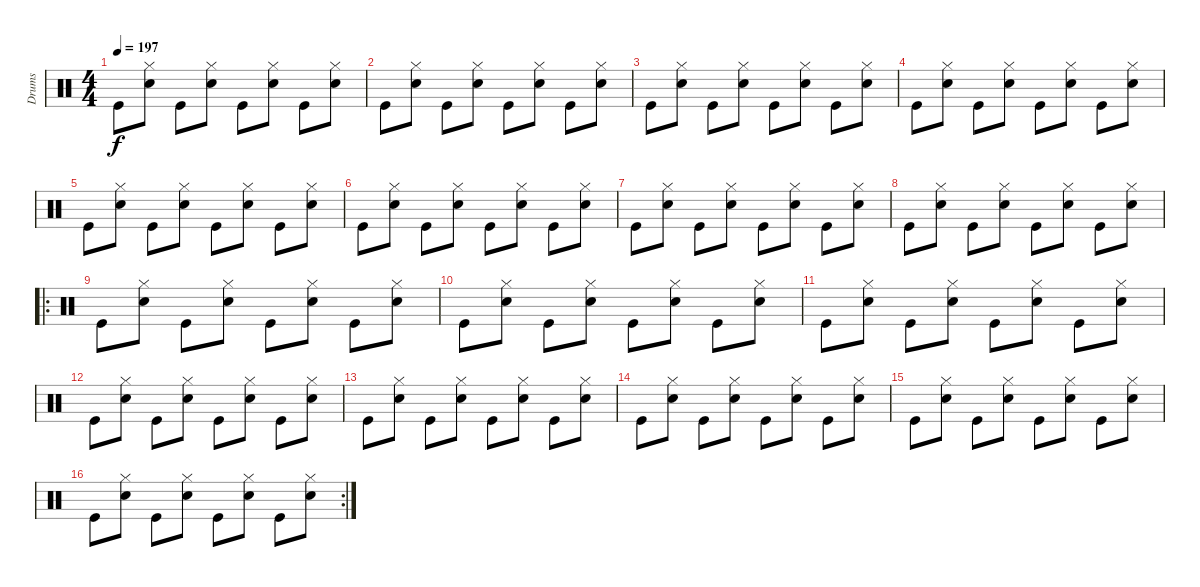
\track ("Drums" "Drums") {instrument percussion}
\staff {score}
\articulation defaults
\ts (4 4)
\tempo 197
\clef neutral
\ks c "Kick (hit)".8{dy f}
("Hi-Hat (closed)" "Snare (hit) 2").8 "Kick (hit)".8 ("Hi-Hat (closed)" "Snare (hit) 2").8 "Kick (hit)".8 ("Hi-Hat (closed)" "Snare (hit) 2").8 "Kick (hit)".8 ("Hi-Hat (closed)" "Snare (hit) 2").8 |
"Kick (hit)".8 ("Hi-Hat (closed)" "Snare (hit) 2").8 "Kick (hit)".8 ("Hi-Hat (closed)" "Snare (hit) 2").8 "Kick (hit)".8 ("Hi-Hat (closed)" "Snare (hit) 2").8 "Kick (hit)".8 ("Hi-Hat (closed)" "Snare (hit) 2").8 |
"Kick (hit)".8 ("Hi-Hat (closed)" "Snare (hit) 2").8 "Kick (hit)".8 ("Hi-Hat (closed)" "Snare (hit) 2").8 "Kick (hit)".8 ("Hi-Hat (closed)" "Snare (hit) 2").8 "Kick (hit)".8 ("Hi-Hat (closed)" "Snare (hit) 2").8 |
"Kick (hit)".8 ("Hi-Hat (closed)" "Snare (hit) 2").8 "Kick (hit)".8 ("Hi-Hat (closed)" "Snare (hit) 2").8 "Kick (hit)".8 ("Hi-Hat (closed)" "Snare (hit) 2").8 "Kick (hit)".8 ("Hi-Hat (closed)" "Snare (hit) 2").8 |
"Kick (hit)".8 ("Hi-Hat (closed)" "Snare (hit) 2").8 "Kick (hit)".8 ("Hi-Hat (closed)" "Snare (hit) 2").8 "Kick (hit)".8 ("Hi-Hat (closed)" "Snare (hit) 2").8 "Kick (hit)".8 ("Hi-Hat (closed)" "Snare (hit) 2").8 |
"Kick (hit)".8 ("Hi-Hat (closed)" "Snare (hit) 2").8 "Kick (hit)".8 ("Hi-Hat (closed)" "Snare (hit) 2").8 "Kick (hit)".8 ("Hi-Hat (closed)" "Snare (hit) 2").8 "Kick (hit)".8 ("Hi-Hat (closed)" "Snare (hit) 2").8 |
"Kick (hit)".8 ("Hi-Hat (closed)" "Snare (hit) 2").8 "Kick (hit)".8 ("Hi-Hat (closed)" "Snare (hit) 2").8 "Kick (hit)".8 ("Hi-Hat (closed)" "Snare (hit) 2").8 "Kick (hit)".8 ("Hi-Hat (closed)" "Snare (hit) 2").8 |
"Kick (hit)".8 ("Hi-Hat (closed)" "Snare (hit) 2").8 "Kick (hit)".8 ("Hi-Hat (closed)" "Snare (hit) 2").8 "Kick (hit)".8 ("Hi-Hat (closed)" "Snare (hit) 2").8 "Kick (hit)".8 ("Hi-Hat (closed)" "Snare (hit) 2").8 |
\ro "Kick (hit)".8
("Hi-Hat (closed)" "Snare (hit) 2").8 "Kick (hit)".8 ("Hi-Hat (closed)" "Snare (hit) 2").8 "Kick (hit)".8 ("Hi-Hat (closed)" "Snare (hit) 2").8 "Kick (hit)".8 ("Hi-Hat (closed)" "Snare (hit) 2").8 |
"Kick (hit)".8 ("Hi-Hat (closed)" "Snare (hit) 2").8 "Kick (hit)".8 ("Hi-Hat (closed)" "Snare (hit) 2").8 "Kick (hit)".8 ("Hi-Hat (closed)" "Snare (hit) 2").8 "Kick (hit)".8 ("Hi-Hat (closed)" "Snare (hit) 2").8 |
"Kick (hit)".8 ("Hi-Hat (closed)" "Snare (hit) 2").8 "Kick (hit)".8 ("Hi-Hat (closed)" "Snare (hit) 2").8 "Kick (hit)".8 ("Hi-Hat (closed)" "Snare (hit) 2").8 "Kick (hit)".8 ("Hi-Hat (closed)" "Snare (hit) 2").8 |
"Kick (hit)".8 ("Hi-Hat (closed)" "Snare (hit) 2").8 "Kick (hit)".8 ("Hi-Hat (closed)" "Snare (hit) 2").8 "Kick (hit)".8 ("Hi-Hat (closed)" "Snare (hit) 2").8 "Kick (hit)".8 ("Hi-Hat (closed)" "Snare (hit) 2").8 |
"Kick (hit)".8 ("Hi-Hat (closed)" "Snare (hit) 2").8 "Kick (hit)".8 ("Hi-Hat (closed)" "Snare (hit) 2").8 "Kick (hit)".8 ("Hi-Hat (closed)" "Snare (hit) 2").8 "Kick (hit)".8 ("Hi-Hat (closed)" "Snare (hit) 2").8 |
"Kick (hit)".8 ("Hi-Hat (closed)" "Snare (hit) 2").8 "Kick (hit)".8 ("Hi-Hat (closed)" "Snare (hit) 2").8 "Kick (hit)".8 ("Hi-Hat (closed)" "Snare (hit) 2").8 "Kick (hit)".8 ("Hi-Hat (closed)" "Snare (hit) 2").8 |
"Kick (hit)".8 ("Hi-Hat (closed)" "Snare (hit) 2").8 "Kick (hit)".8 ("Hi-Hat (closed)" "Snare (hit) 2").8 "Kick (hit)".8 ("Hi-Hat (closed)" "Snare (hit) 2").8 "Kick (hit)".8 ("Hi-Hat (closed)" "Snare (hit) 2").8 |
\rc 2 "Kick (hit)".8
("Hi-Hat (closed)" "Snare (hit) 2").8 "Kick (hit)".8 ("Hi-Hat (closed)" "Snare (hit) 2").8 "Kick (hit)".8 ("Hi-Hat (closed)" "Snare (hit) 2").8 "Kick (hit)".8 ("Hi-Hat (closed)" "Snare (hit) 2").8
